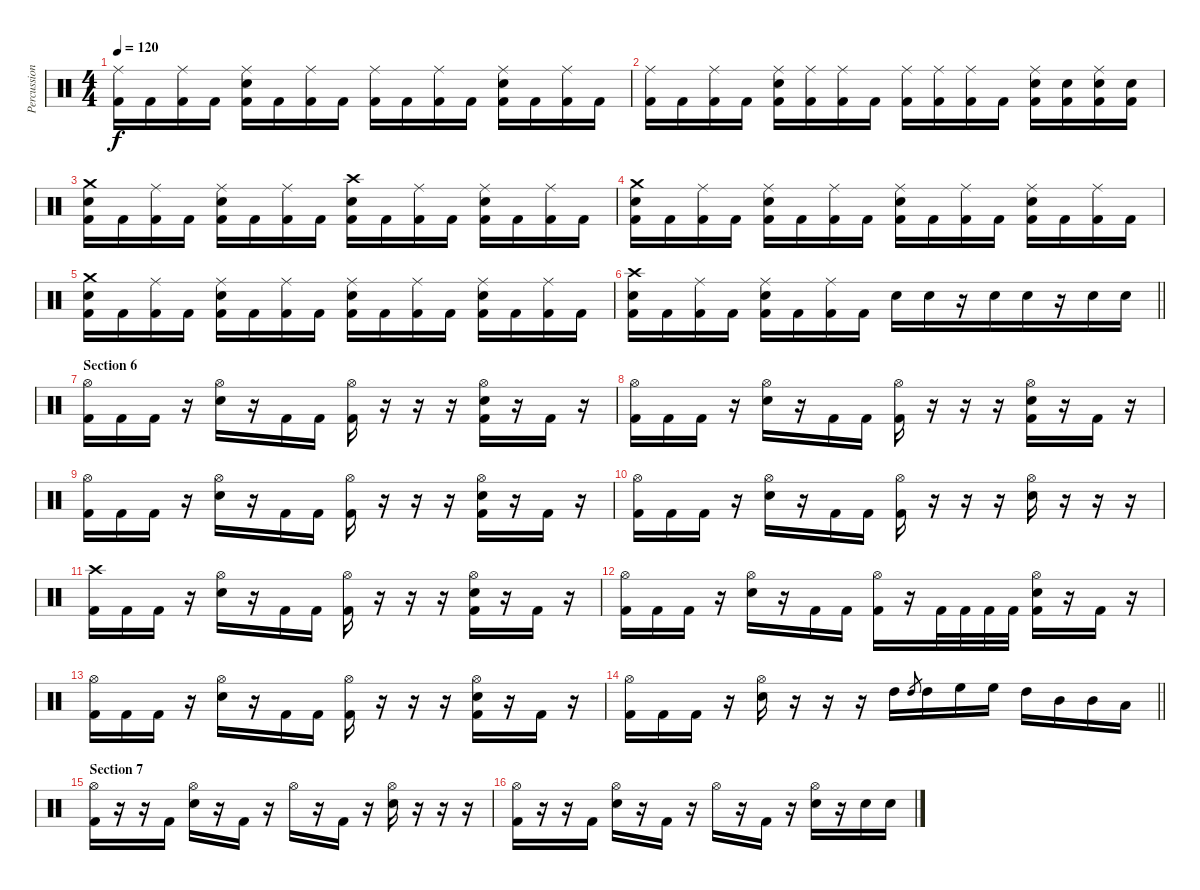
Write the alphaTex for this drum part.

\track ("Percussion" "Percussion") {instrument percussion}
\staff {score}
\articulation defaults
\ts (4 4)
\tempo 120
\clef neutral
\ks c
("Ride (middle)" "Kick (hit) 2").16{dy f} "Kick (hit) 2".16 ("Ride (middle)" "Kick (hit) 2").16 "Kick (hit) 2".16 ("Ride (middle)" "Electric Snare (hit)" "Kick (hit) 2").16 "Kick (hit) 2".16 ("Ride (middle)" "Kick (hit) 2").16 "Kick (hit) 2".16 ("Ride (middle)" "Kick (hit) 2").16 "Kick (hit) 2".16 ("Ride (middle)" "Kick (hit) 2").16 "Kick (hit) 2".16 ("Ride (middle)" "Electric Snare (hit)" "Kick (hit) 2").16 "Kick (hit) 2".16 ("Ride (middle)" "Kick (hit) 2").16 "Kick (hit) 2".16 |
("Ride (middle)" "Kick (hit) 2").16 "Kick (hit) 2".16 ("Ride (middle)" "Kick (hit) 2").16 "Kick (hit) 2".16 ("Ride (middle)" "Electric Snare (hit)" "Kick (hit) 2").16 ("Ride (middle)" "Kick (hit) 2").16 ("Ride (middle)" "Kick (hit) 2").16 "Kick (hit) 2".16 ("Ride (middle)" "Kick (hit) 2").16 ("Ride (middle)" "Kick (hit) 2").16 ("Ride (middle)" "Kick (hit) 2").16 "Kick (hit) 2".16 ("Ride (middle)" "Electric Snare (hit)" "Kick (hit) 2").16 ("Electric Snare (hit)" "Kick (hit) 2").16 ("Ride (middle)" "Electric Snare (hit)" "Kick (hit) 2").16 ("Electric Snare (hit)" "Kick (hit) 2").16 |
("Crash medium (hit)" "Electric Snare (hit)" "Kick (hit) 2").16 "Kick (hit) 2".16 ("Ride (middle)" "Kick (hit) 2").16 "Kick (hit) 2".16 ("Ride (middle)" "Electric Snare (hit)" "Kick (hit) 2").16 "Kick (hit) 2".16 ("Ride (middle)" "Kick (hit) 2").16 "Kick (hit) 2".16 ("Crash high (hit)" "Electric Snare (hit)" "Kick (hit) 2").16 "Kick (hit) 2".16 ("Ride (middle)" "Kick (hit) 2").16 "Kick (hit) 2".16 ("Ride (middle)" "Electric Snare (hit)" "Kick (hit) 2").16 "Kick (hit) 2".16 ("Ride (middle)" "Kick (hit) 2").16 "Kick (hit) 2".16 |
("Crash medium (hit)" "Electric Snare (hit)" "Kick (hit) 2").16 "Kick (hit) 2".16 ("Ride (middle)" "Kick (hit) 2").16 "Kick (hit) 2".16 ("Ride (middle)" "Electric Snare (hit)" "Kick (hit) 2").16 "Kick (hit) 2".16 ("Ride (middle)" "Kick (hit) 2").16 "Kick (hit) 2".16 ("Ride (middle)" "Electric Snare (hit)" "Kick (hit) 2").16 "Kick (hit) 2".16 ("Ride (middle)" "Kick (hit) 2").16 "Kick (hit) 2".16 ("Ride (middle)" "Electric Snare (hit)" "Kick (hit) 2").16 "Kick (hit) 2".16 ("Ride (middle)" "Kick (hit) 2").16 "Kick (hit) 2".16 |
("Crash medium (hit)" "Electric Snare (hit)" "Kick (hit) 2").16 "Kick (hit) 2".16 ("Ride (middle)" "Kick (hit) 2").16 "Kick (hit) 2".16 ("Ride (middle)" "Electric Snare (hit)" "Kick (hit) 2").16 "Kick (hit) 2".16 ("Ride (middle)" "Kick (hit) 2").16 "Kick (hit) 2".16 ("Ride (middle)" "Electric Snare (hit)" "Kick (hit) 2").16 "Kick (hit) 2".16 ("Ride (middle)" "Kick (hit) 2").16 "Kick (hit) 2".16 ("Ride (middle)" "Electric Snare (hit)" "Kick (hit) 2").16 "Kick (hit) 2".16 ("Ride (middle)" "Kick (hit) 2").16 "Kick (hit) 2".16 |
\barLineRight lightlight
("Crash high (hit)" "Electric Snare (hit)" "Kick (hit) 2").16 "Kick (hit) 2".16 ("Ride (middle)" "Kick (hit) 2").16 "Kick (hit) 2".16 ("Ride (middle)" "Electric Snare (hit)" "Kick (hit) 2").16 "Kick (hit) 2".16 ("Ride (middle)" "Kick (hit) 2").16 "Kick (hit) 2".16 "Electric Snare (hit)".16 "Electric Snare (hit)".16 r.16 "Electric Snare (hit)".16{beam merge} "Electric Snare (hit)".16 r.16 "Electric Snare (hit)".16 "Electric Snare (hit)".16 |
\section ("" "Section 6")
("Hi-Hat (open)" "Kick (hit) 2").16 "Kick (hit) 2".16 "Kick (hit) 2".16 r.16 ("Hi-Hat (open)" "Electric Snare (hit)").16 r.16 "Kick (hit) 2".16 "Kick (hit) 2".16 ("Hi-Hat (open)" "Kick (hit) 2").16 r.16 r.16 r.16 ("Hi-Hat (open)" "Electric Snare (hit)" "Kick (hit) 2").16 r.16 "Kick (hit) 2".16 r.16 |
("Hi-Hat (open)" "Kick (hit) 2").16 "Kick (hit) 2".16 "Kick (hit) 2".16 r.16 ("Hi-Hat (open)" "Electric Snare (hit)").16 r.16 "Kick (hit) 2".16 "Kick (hit) 2".16 ("Hi-Hat (open)" "Kick (hit) 2").16 r.16 r.16 r.16 ("Hi-Hat (open)" "Electric Snare (hit)" "Kick (hit) 2").16 r.16 "Kick (hit) 2".16 r.16 |
("Hi-Hat (open)" "Kick (hit) 2").16 "Kick (hit) 2".16 "Kick (hit) 2".16 r.16 ("Hi-Hat (open)" "Electric Snare (hit)").16 r.16 "Kick (hit) 2".16 "Kick (hit) 2".16 ("Hi-Hat (open)" "Kick (hit) 2").16 r.16 r.16 r.16 ("Hi-Hat (open)" "Electric Snare (hit)" "Kick (hit) 2").16 r.16 "Kick (hit) 2".16 r.16 |
("Hi-Hat (open)" "Kick (hit) 2").16 "Kick (hit) 2".16 "Kick (hit) 2".16 r.16 ("Hi-Hat (open)" "Electric Snare (hit)").16 r.16 "Kick (hit) 2".16 "Kick (hit) 2".16 ("Hi-Hat (open)" "Kick (hit) 2").16 r.16 r.16 r.16 ("Hi-Hat (open)" "Electric Snare (hit)").16 r.16 r.16 r.16 |
("Crash high (hit)" "Kick (hit) 2").16 "Kick (hit) 2".16 "Kick (hit) 2".16 r.16 ("Hi-Hat (open)" "Electric Snare (hit)").16 r.16 "Kick (hit) 2".16 "Kick (hit) 2".16 ("Hi-Hat (open)" "Kick (hit) 2").16 r.16 r.16 r.16 ("Hi-Hat (open)" "Electric Snare (hit)" "Kick (hit) 2").16 r.16 "Kick (hit) 2".16 r.16 |
("Hi-Hat (open)" "Kick (hit) 2").16 "Kick (hit) 2".16 "Kick (hit) 2".16 r.16 ("Hi-Hat (open)" "Electric Snare (hit)").16 r.16 "Kick (hit) 2".16 "Kick (hit) 2".16 ("Hi-Hat (open)" "Kick (hit) 2").16 r.16 "Kick (hit) 2".32 "Kick (hit) 2".32 "Kick (hit) 2".32 "Kick (hit) 2".32 ("Hi-Hat (open)" "Electric Snare (hit)" "Kick (hit) 2").16 r.16 "Kick (hit) 2".16 r.16 |
("Hi-Hat (open)" "Kick (hit) 2").16 "Kick (hit) 2".16 "Kick (hit) 2".16 r.16 ("Hi-Hat (open)" "Electric Snare (hit)").16 r.16 "Kick (hit) 2".16 "Kick (hit) 2".16 ("Hi-Hat (open)" "Kick (hit) 2").16 r.16 r.16 r.16 ("Hi-Hat (open)" "Electric Snare (hit)" "Kick (hit) 2").16 r.16 "Kick (hit) 2".16 r.16 |
\barLineRight lightlight
("Hi-Hat (open)" "Kick (hit) 2").16 "Kick (hit) 2".16 "Kick (hit) 2".16 r.16 ("Hi-Hat (open)" "Electric Snare (hit)").16 r.16 r.16 r.16 "High Tom (hit)".16 "High Tom (hit)".8{gr} "High Tom (hit)".16 "High Floor Tom (hit)".16 "High Floor Tom (hit)".16 "High Tom (hit)".16 "Mid Tom (hit)".16 "Mid Tom (hit)".16 "Low Tom (hit)".16 |
\section ("" "Section 7")
("Hi-Hat (open)" "Kick (hit) 2").16 r.16 r.16 "Kick (hit) 2".16 ("Hi-Hat (open)" "Electric Snare (hit)").16 r.16 "Kick (hit) 2".16 r.16 "Hi-Hat (open)".16 r.16 "Kick (hit) 2".16 r.16 ("Hi-Hat (open)" "Electric Snare (hit)").16 r.16 r.16 r.16 |
("Hi-Hat (open)" "Kick (hit) 2").16 r.16 r.16 "Kick (hit) 2".16 ("Hi-Hat (open)" "Electric Snare (hit)").16 r.16 "Kick (hit) 2".16 r.16 "Hi-Hat (open)".16 r.16 "Kick (hit) 2".16 r.16 ("Hi-Hat (open)" "Electric Snare (hit)").16 r.16 "Electric Snare (hit)".16 "Electric Snare (hit)".16
